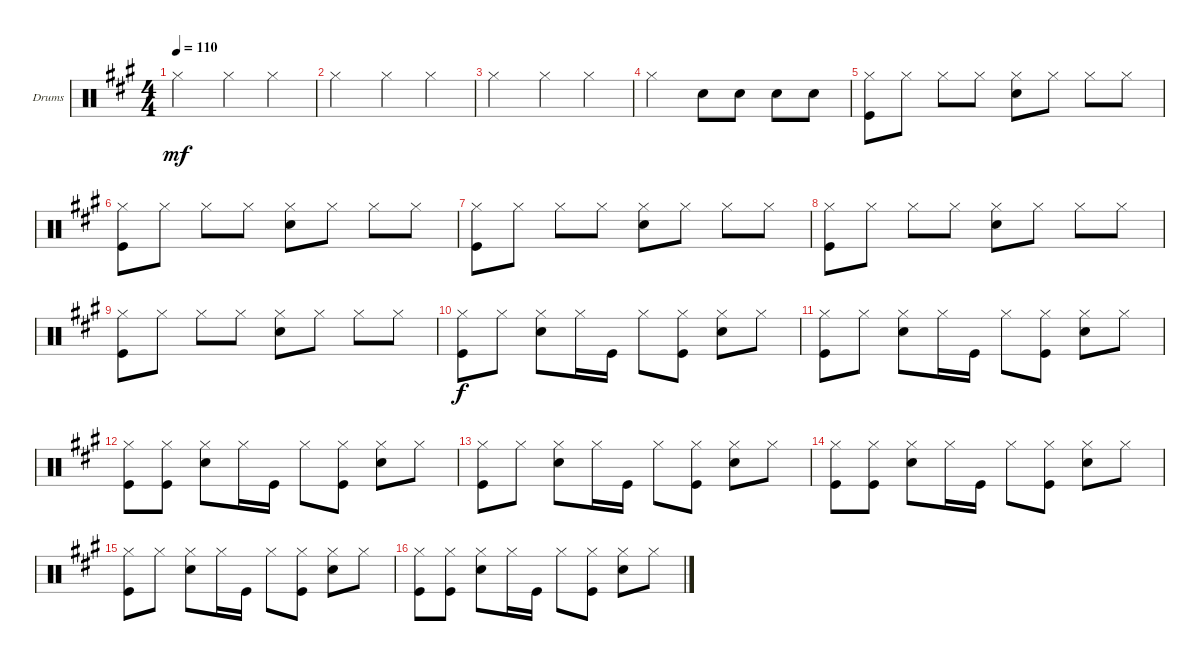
\defaultSystemsLayout 4
\bracketExtendMode groupsimilarinstruments
\firstSystemTrackNameOrientation horizontal
\otherSystemsTrackNameOrientation horizontal
\track ("Drumkit" "Drums") {instrument percussion}
\staff {score}
\articulation defaults
\ts (4 4)
\tempo 110
\clef neutral
\scale
0.529412
\ks a "Hi-Hat (closed)".2{dy mf} "Hi-Hat (closed)".4 "Hi-Hat (closed)".4
|
\scale
0.235294 "Hi-Hat (closed)".2 "Hi-Hat (closed)".4 "Hi-Hat (closed)".4 |
\scale
0.235294 "Hi-Hat (closed)".2 "Hi-Hat (closed)".4 "Hi-Hat (closed)".4 |
\scale
0.333333 "Hi-Hat (closed)".2 "Snare (hit) 2".8 "Snare (hit) 2".8 "Snare (hit) 2".8 "Snare (hit) 2".8 |
\scale
0.333333 ("Kick (hit)" "Hi-Hat (closed)").8 "Hi-Hat (closed)".8 "Hi-Hat (closed)".8 "Hi-Hat (closed)".8 ("Hi-Hat (closed)" "Snare (hit) 2").8 "Hi-Hat (closed)".8 "Hi-Hat (closed)".8 "Hi-Hat (closed)".8 |
\scale
0.333333 ("Kick (hit)" "Hi-Hat (closed)").8 "Hi-Hat (closed)".8 "Hi-Hat (closed)".8 "Hi-Hat (closed)".8 ("Hi-Hat (closed)" "Snare (hit) 2").8 "Hi-Hat (closed)".8 "Hi-Hat (closed)".8 "Hi-Hat (closed)".8 |
("Kick (hit)" "Hi-Hat (closed)").8 "Hi-Hat (closed)".8 "Hi-Hat (closed)".8 "Hi-Hat (closed)".8 ("Hi-Hat (closed)" "Snare (hit) 2").8 "Hi-Hat (closed)".8 "Hi-Hat (closed)".8 "Hi-Hat (closed)".8 |
("Kick (hit)" "Hi-Hat (closed)").8 "Hi-Hat (closed)".8 "Hi-Hat (closed)".8 "Hi-Hat (closed)".8 ("Hi-Hat (closed)" "Snare (hit) 2").8 "Hi-Hat (closed)".8 "Hi-Hat (closed)".8 "Hi-Hat (closed)".8 |
("Kick (hit)" "Hi-Hat (closed)").8 "Hi-Hat (closed)".8 "Hi-Hat (closed)".8 "Hi-Hat (closed)".8 ("Hi-Hat (closed)" "Snare (hit) 2").8 "Hi-Hat (closed)".8 "Hi-Hat (closed)".8 "Hi-Hat (closed)".8 |
("Hi-Hat (closed)" "Kick (hit)").8{dy f} "Hi-Hat (closed)".8 ("Hi-Hat (closed)" "Snare (hit) 2").8 "Hi-Hat (closed)".16 "Kick (hit)".16 "Hi-Hat (closed)".8 ("Hi-Hat (closed)" "Kick (hit)").8 ("Hi-Hat (closed)" "Snare (hit) 2").8 "Hi-Hat (closed)".8 |
("Hi-Hat (closed)" "Kick (hit)").8 "Hi-Hat (closed)".8 ("Hi-Hat (closed)" "Snare (hit) 2").8 "Hi-Hat (closed)".16 "Kick (hit)".16 "Hi-Hat (closed)".8 ("Hi-Hat (closed)" "Kick (hit)").8 ("Hi-Hat (closed)" "Snare (hit) 2").8 "Hi-Hat (closed)".8 |
("Hi-Hat (closed)" "Kick (hit)").8 ("Hi-Hat (closed)" "Kick (hit)").8 ("Hi-Hat (closed)" "Snare (hit) 2").8 "Hi-Hat (closed)".16 "Kick (hit)".16 "Hi-Hat (closed)".8 ("Hi-Hat (closed)" "Kick (hit)").8 ("Hi-Hat (closed)" "Snare (hit) 2").8 "Hi-Hat (closed)".8 |
("Hi-Hat (closed)" "Kick (hit)").8 "Hi-Hat (closed)".8 ("Hi-Hat (closed)" "Snare (hit) 2").8 "Hi-Hat (closed)".16 "Kick (hit)".16 "Hi-Hat (closed)".8 ("Hi-Hat (closed)" "Kick (hit)").8 ("Hi-Hat (closed)" "Snare (hit) 2").8 "Hi-Hat (closed)".8 |
("Hi-Hat (closed)" "Kick (hit)").8 ("Hi-Hat (closed)" "Kick (hit)").8 ("Hi-Hat (closed)" "Snare (hit) 2").8 "Hi-Hat (closed)".16 "Kick (hit)".16 "Hi-Hat (closed)".8 ("Hi-Hat (closed)" "Kick (hit)").8 ("Hi-Hat (closed)" "Snare (hit) 2").8 "Hi-Hat (closed)".8 |
("Hi-Hat (closed)" "Kick (hit)").8 "Hi-Hat (closed)".8 ("Hi-Hat (closed)" "Snare (hit) 2").8 "Hi-Hat (closed)".16 "Kick (hit)".16 "Hi-Hat (closed)".8 ("Hi-Hat (closed)" "Kick (hit)").8 ("Hi-Hat (closed)" "Snare (hit) 2").8 "Hi-Hat (closed)".8 |
("Hi-Hat (closed)" "Kick (hit)").8 ("Hi-Hat (closed)" "Kick (hit)").8 ("Hi-Hat (closed)" "Snare (hit) 2").8 "Hi-Hat (closed)".16 "Kick (hit)".16 "Hi-Hat (closed)".8 ("Hi-Hat (closed)" "Kick (hit)").8 ("Hi-Hat (closed)" "Snare (hit) 2").8 "Hi-Hat (closed)".8
